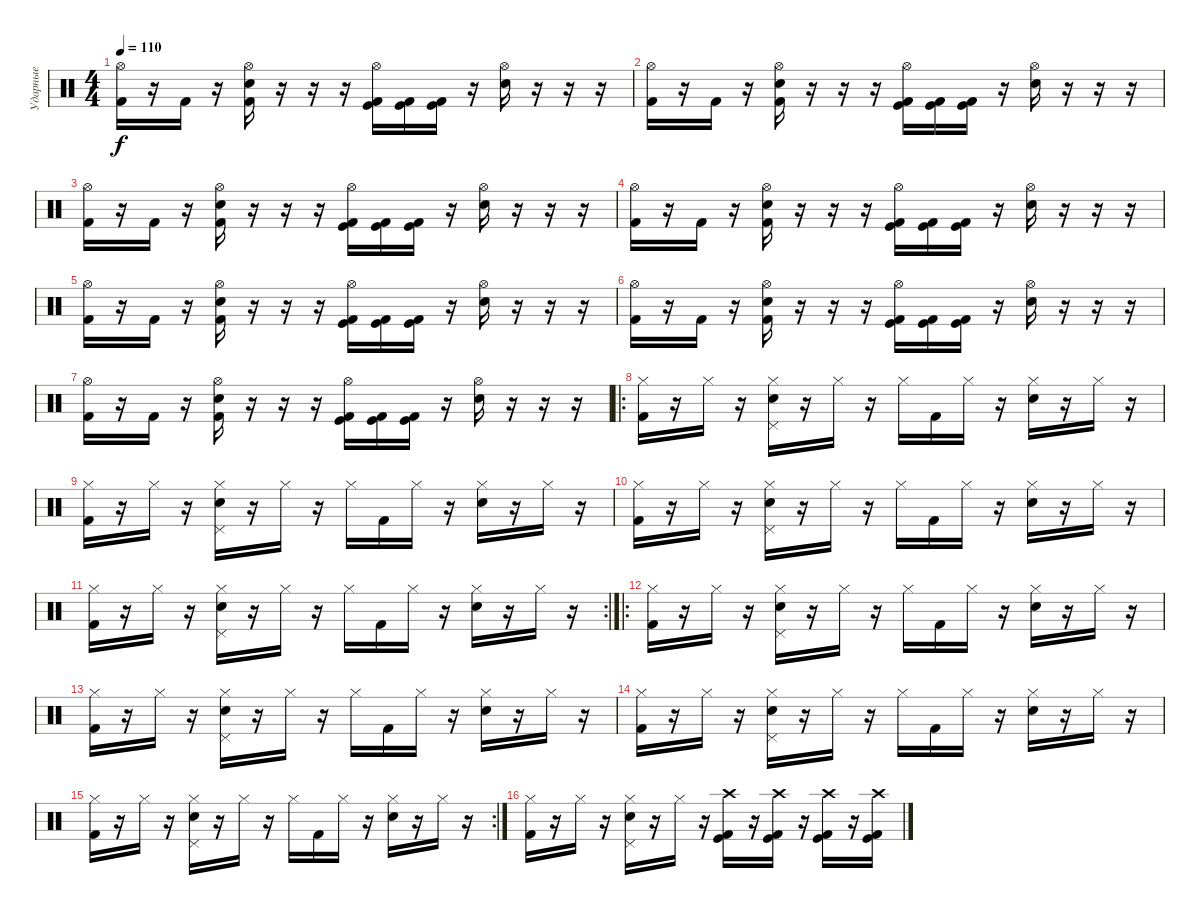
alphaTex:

\track ("Ударные" "Ударные") {instrument percussion}
\staff {score}
\articulation defaults
\ts (4 4)
\tempo 110
\clef neutral
\ks c
("Hi-Hat (open)" "Kick (hit) 2").16{dy f} r.16 "Kick (hit) 2".16 r.16 ("Hi-Hat (open)" "Electric Snare (hit)" "Kick (hit) 2").16 r.16 r.16 r.16 ("Hi-Hat (open)" "Kick (hit)" "Kick (hit) 2").16 ("Kick (hit)" "Kick (hit) 2").16 ("Kick (hit)" "Kick (hit) 2").16 r.16 ("Hi-Hat (open)" "Electric Snare (hit)").16 r.16 r.16 r.16 |
("Hi-Hat (open)" "Kick (hit) 2").16 r.16 "Kick (hit) 2".16 r.16 ("Hi-Hat (open)" "Electric Snare (hit)" "Kick (hit) 2").16 r.16 r.16 r.16 ("Hi-Hat (open)" "Kick (hit)" "Kick (hit) 2").16 ("Kick (hit)" "Kick (hit) 2").16 ("Kick (hit)" "Kick (hit) 2").16 r.16 ("Hi-Hat (open)" "Electric Snare (hit)").16 r.16 r.16 r.16 |
("Hi-Hat (open)" "Kick (hit) 2").16 r.16 "Kick (hit) 2".16 r.16 ("Hi-Hat (open)" "Electric Snare (hit)" "Kick (hit) 2").16 r.16 r.16 r.16 ("Hi-Hat (open)" "Kick (hit)" "Kick (hit) 2").16 ("Kick (hit)" "Kick (hit) 2").16 ("Kick (hit)" "Kick (hit) 2").16 r.16 ("Hi-Hat (open)" "Electric Snare (hit)").16 r.16 r.16 r.16 |
("Hi-Hat (open)" "Kick (hit) 2").16 r.16 "Kick (hit) 2".16 r.16 ("Hi-Hat (open)" "Electric Snare (hit)" "Kick (hit) 2").16 r.16 r.16 r.16 ("Hi-Hat (open)" "Kick (hit)" "Kick (hit) 2").16 ("Kick (hit)" "Kick (hit) 2").16 ("Kick (hit)" "Kick (hit) 2").16 r.16 ("Hi-Hat (open)" "Electric Snare (hit)").16 r.16 r.16 r.16 |
("Hi-Hat (open)" "Kick (hit) 2").16 r.16 "Kick (hit) 2".16 r.16 ("Hi-Hat (open)" "Electric Snare (hit)" "Kick (hit) 2").16 r.16 r.16 r.16 ("Hi-Hat (open)" "Kick (hit)" "Kick (hit) 2").16 ("Kick (hit)" "Kick (hit) 2").16 ("Kick (hit)" "Kick (hit) 2").16 r.16 ("Hi-Hat (open)" "Electric Snare (hit)").16 r.16 r.16 r.16 |
("Hi-Hat (open)" "Kick (hit) 2").16 r.16 "Kick (hit) 2".16 r.16 ("Hi-Hat (open)" "Electric Snare (hit)" "Kick (hit) 2").16 r.16 r.16 r.16 ("Hi-Hat (open)" "Kick (hit)" "Kick (hit) 2").16 ("Kick (hit)" "Kick (hit) 2").16 ("Kick (hit)" "Kick (hit) 2").16 r.16 ("Hi-Hat (open)" "Electric Snare (hit)").16 r.16 r.16 r.16 |
("Hi-Hat (open)" "Kick (hit) 2").16 r.16 "Kick (hit) 2".16 r.16 ("Hi-Hat (open)" "Electric Snare (hit)" "Kick (hit) 2").16 r.16 r.16 r.16 ("Hi-Hat (open)" "Kick (hit)" "Kick (hit) 2").16 ("Kick (hit)" "Kick (hit) 2").16 ("Kick (hit)" "Kick (hit) 2").16 r.16 ("Hi-Hat (open)" "Electric Snare (hit)").16 r.16 r.16 r.16 |
\ro
("Hi-Hat (closed)" "Kick (hit) 2").16 r.16 "Hi-Hat (closed)".16 r.16 ("Pedal Hi-Hat (hit)" "Hi-Hat (closed)" "Electric Snare (hit)").16 r.16 "Hi-Hat (closed)".16 r.16 "Hi-Hat (closed)".16 "Kick (hit) 2".16 "Hi-Hat (closed)".16 r.16 ("Hi-Hat (closed)" "Electric Snare (hit)").16 r.16 "Hi-Hat (closed)".16 r.16 |
("Hi-Hat (closed)" "Kick (hit) 2").16 r.16 "Hi-Hat (closed)".16 r.16 ("Pedal Hi-Hat (hit)" "Hi-Hat (closed)" "Electric Snare (hit)").16 r.16 "Hi-Hat (closed)".16 r.16 "Hi-Hat (closed)".16 "Kick (hit) 2".16 "Hi-Hat (closed)".16 r.16 ("Hi-Hat (closed)" "Electric Snare (hit)").16 r.16 "Hi-Hat (closed)".16 r.16 |
("Hi-Hat (closed)" "Kick (hit) 2").16 r.16 "Hi-Hat (closed)".16 r.16 ("Pedal Hi-Hat (hit)" "Hi-Hat (closed)" "Electric Snare (hit)").16 r.16 "Hi-Hat (closed)".16 r.16 "Hi-Hat (closed)".16 "Kick (hit) 2".16 "Hi-Hat (closed)".16 r.16 ("Hi-Hat (closed)" "Electric Snare (hit)").16 r.16 "Hi-Hat (closed)".16 r.16 |
\rc 2
("Hi-Hat (closed)" "Kick (hit) 2").16 r.16 "Hi-Hat (closed)".16 r.16 ("Pedal Hi-Hat (hit)" "Hi-Hat (closed)" "Electric Snare (hit)").16 r.16 "Hi-Hat (closed)".16 r.16 "Hi-Hat (closed)".16 "Kick (hit) 2".16 "Hi-Hat (closed)".16 r.16 ("Hi-Hat (closed)" "Electric Snare (hit)").16 r.16 "Hi-Hat (closed)".16 r.16 |
\ro
("Hi-Hat (closed)" "Kick (hit) 2").16 r.16 "Hi-Hat (closed)".16 r.16 ("Pedal Hi-Hat (hit)" "Hi-Hat (closed)" "Electric Snare (hit)").16 r.16 "Hi-Hat (closed)".16 r.16 "Hi-Hat (closed)".16 "Kick (hit) 2".16 "Hi-Hat (closed)".16 r.16 ("Hi-Hat (closed)" "Electric Snare (hit)").16 r.16 "Hi-Hat (closed)".16 r.16 |
("Hi-Hat (closed)" "Kick (hit) 2").16 r.16 "Hi-Hat (closed)".16 r.16 ("Pedal Hi-Hat (hit)" "Hi-Hat (closed)" "Electric Snare (hit)").16 r.16 "Hi-Hat (closed)".16 r.16 "Hi-Hat (closed)".16 "Kick (hit) 2".16 "Hi-Hat (closed)".16 r.16 ("Hi-Hat (closed)" "Electric Snare (hit)").16 r.16 "Hi-Hat (closed)".16 r.16 |
("Hi-Hat (closed)" "Kick (hit) 2").16 r.16 "Hi-Hat (closed)".16 r.16 ("Pedal Hi-Hat (hit)" "Hi-Hat (closed)" "Electric Snare (hit)").16 r.16 "Hi-Hat (closed)".16 r.16 "Hi-Hat (closed)".16 "Kick (hit) 2".16 "Hi-Hat (closed)".16 r.16 ("Hi-Hat (closed)" "Electric Snare (hit)").16 r.16 "Hi-Hat (closed)".16 r.16 |
\rc 2
("Hi-Hat (closed)" "Kick (hit) 2").16 r.16 "Hi-Hat (closed)".16 r.16 ("Pedal Hi-Hat (hit)" "Hi-Hat (closed)" "Electric Snare (hit)").16 r.16 "Hi-Hat (closed)".16 r.16 "Hi-Hat (closed)".16 "Kick (hit) 2".16 "Hi-Hat (closed)".16 r.16 ("Hi-Hat (closed)" "Electric Snare (hit)").16 r.16 "Hi-Hat (closed)".16 r.16 |
("Hi-Hat (closed)" "Kick (hit) 2").16 r.16 "Hi-Hat (closed)".16 r.16 ("Pedal Hi-Hat (hit)" "Hi-Hat (closed)" "Electric Snare (hit)").16 r.16 "Hi-Hat (closed)".16 r.16 ("Kick (hit)" "Crash high (hit)" "Kick (hit) 2").16 r.16 ("Kick (hit)" "Crash high (hit)" "Kick (hit) 2").16 r.16 ("Kick (hit)" "Crash high (hit)" "Kick (hit) 2").16 r.16 ("Kick (hit)" "Crash high (hit)" "Kick (hit) 2").16
